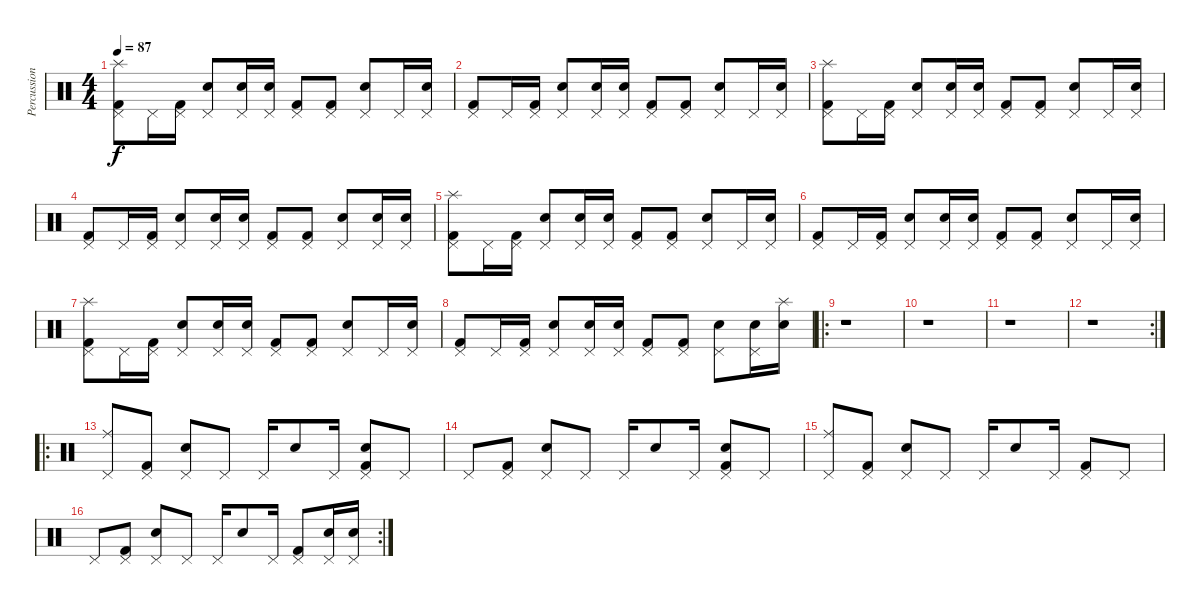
\track ("Percussions" "Percussion") {instrument percussion}
\staff {score}
\articulation defaults
\ts (4 4)
\tempo 87
\clef neutral
\ks c
("Splash (hit)" "Pedal Hi-Hat (hit)" "Kick (hit) 2").8{dy f} "Pedal Hi-Hat (hit)".16 ("Pedal Hi-Hat (hit)" "Kick (hit) 2").16 ("Pedal Hi-Hat (hit)" "Snare (hit) 2").8 ("Pedal Hi-Hat (hit)" "Snare (hit) 2").16 ("Pedal Hi-Hat (hit)" "Snare (hit) 2").16 ("Pedal Hi-Hat (hit)" "Kick (hit) 2").8 ("Pedal Hi-Hat (hit)" "Kick (hit) 2").8 ("Pedal Hi-Hat (hit)" "Snare (hit) 2").8 "Pedal Hi-Hat (hit)".16 ("Pedal Hi-Hat (hit)" "Snare (hit) 2").16 |
("Pedal Hi-Hat (hit)" "Kick (hit) 2").8 "Pedal Hi-Hat (hit)".16 ("Pedal Hi-Hat (hit)" "Kick (hit) 2").16 ("Pedal Hi-Hat (hit)" "Snare (hit) 2").8 ("Pedal Hi-Hat (hit)" "Snare (hit) 2").16 ("Pedal Hi-Hat (hit)" "Snare (hit) 2").16 ("Pedal Hi-Hat (hit)" "Kick (hit) 2").8 ("Pedal Hi-Hat (hit)" "Kick (hit) 2").8 ("Pedal Hi-Hat (hit)" "Snare (hit) 2").8 "Pedal Hi-Hat (hit)".16 ("Pedal Hi-Hat (hit)" "Snare (hit) 2").16 |
("Splash (hit)" "Pedal Hi-Hat (hit)" "Kick (hit) 2").8 "Pedal Hi-Hat (hit)".16 ("Pedal Hi-Hat (hit)" "Kick (hit) 2").16 ("Pedal Hi-Hat (hit)" "Snare (hit) 2").8 ("Pedal Hi-Hat (hit)" "Snare (hit) 2").16 ("Pedal Hi-Hat (hit)" "Snare (hit) 2").16 ("Pedal Hi-Hat (hit)" "Kick (hit) 2").8 ("Pedal Hi-Hat (hit)" "Kick (hit) 2").8 ("Pedal Hi-Hat (hit)" "Snare (hit) 2").8 "Pedal Hi-Hat (hit)".16 ("Pedal Hi-Hat (hit)" "Snare (hit) 2").16 |
("Pedal Hi-Hat (hit)" "Kick (hit) 2").8 "Pedal Hi-Hat (hit)".16 ("Pedal Hi-Hat (hit)" "Kick (hit) 2").16 ("Pedal Hi-Hat (hit)" "Snare (hit) 2").8 ("Pedal Hi-Hat (hit)" "Snare (hit) 2").16 ("Pedal Hi-Hat (hit)" "Snare (hit) 2").16 ("Pedal Hi-Hat (hit)" "Kick (hit) 2").8 ("Pedal Hi-Hat (hit)" "Kick (hit) 2").8 ("Pedal Hi-Hat (hit)" "Snare (hit) 2").8 ("Pedal Hi-Hat (hit)" "Snare (hit) 2").16 ("Pedal Hi-Hat (hit)" "Snare (hit) 2").16 |
("Splash (hit)" "Pedal Hi-Hat (hit)" "Kick (hit) 2").8 "Pedal Hi-Hat (hit)".16 ("Pedal Hi-Hat (hit)" "Kick (hit) 2").16 ("Pedal Hi-Hat (hit)" "Snare (hit) 2").8 ("Pedal Hi-Hat (hit)" "Snare (hit) 2").16 ("Pedal Hi-Hat (hit)" "Snare (hit) 2").16 ("Pedal Hi-Hat (hit)" "Kick (hit) 2").8 ("Pedal Hi-Hat (hit)" "Kick (hit) 2").8 ("Pedal Hi-Hat (hit)" "Snare (hit) 2").8 "Pedal Hi-Hat (hit)".16 ("Pedal Hi-Hat (hit)" "Snare (hit) 2").16 |
("Pedal Hi-Hat (hit)" "Kick (hit) 2").8 "Pedal Hi-Hat (hit)".16 ("Pedal Hi-Hat (hit)" "Kick (hit) 2").16 ("Pedal Hi-Hat (hit)" "Snare (hit) 2").8 ("Pedal Hi-Hat (hit)" "Snare (hit) 2").16 ("Pedal Hi-Hat (hit)" "Snare (hit) 2").16 ("Pedal Hi-Hat (hit)" "Kick (hit) 2").8 ("Pedal Hi-Hat (hit)" "Kick (hit) 2").8 ("Pedal Hi-Hat (hit)" "Snare (hit) 2").8 "Pedal Hi-Hat (hit)".16 ("Pedal Hi-Hat (hit)" "Snare (hit) 2").16 |
("Splash (hit)" "Pedal Hi-Hat (hit)" "Kick (hit) 2").8 "Pedal Hi-Hat (hit)".16 ("Pedal Hi-Hat (hit)" "Kick (hit) 2").16 ("Pedal Hi-Hat (hit)" "Snare (hit) 2").8 ("Pedal Hi-Hat (hit)" "Snare (hit) 2").16 ("Pedal Hi-Hat (hit)" "Snare (hit) 2").16 ("Pedal Hi-Hat (hit)" "Kick (hit) 2").8 ("Pedal Hi-Hat (hit)" "Kick (hit) 2").8 ("Pedal Hi-Hat (hit)" "Snare (hit) 2").8 "Pedal Hi-Hat (hit)".16 ("Pedal Hi-Hat (hit)" "Snare (hit) 2").16 |
("Pedal Hi-Hat (hit)" "Kick (hit) 2").8 "Pedal Hi-Hat (hit)".16 ("Pedal Hi-Hat (hit)" "Kick (hit) 2").16 ("Pedal Hi-Hat (hit)" "Snare (hit) 2").8 ("Pedal Hi-Hat (hit)" "Snare (hit) 2").16 ("Pedal Hi-Hat (hit)" "Snare (hit) 2").16 ("Pedal Hi-Hat (hit)" "Kick (hit) 2").8 ("Pedal Hi-Hat (hit)" "Kick (hit) 2").8 ("Pedal Hi-Hat (hit)" "Snare (hit) 2").8 ("Pedal Hi-Hat (hit)" "Snare (hit) 2").16 ("Splash (hit)" "Snare (hit) 2").16 |
\ro
r.1 |
r.1 |
r.1 |
\rc 2
r.1 |
\ro
("Ride (middle)" "Pedal Hi-Hat (hit)").8 ("Pedal Hi-Hat (hit)" "Kick (hit) 2").8 ("Pedal Hi-Hat (hit)" "Snare (hit) 2").8 "Pedal Hi-Hat (hit)".8 "Pedal Hi-Hat (hit)".16 "Snare (hit) 2".8 "Pedal Hi-Hat (hit)".16 ("Pedal Hi-Hat (hit)" "Snare (hit) 2" "Kick (hit) 2").8 "Pedal Hi-Hat (hit)".8 |
"Pedal Hi-Hat (hit)".8 ("Pedal Hi-Hat (hit)" "Kick (hit) 2").8 ("Pedal Hi-Hat (hit)" "Snare (hit) 2").8 "Pedal Hi-Hat (hit)".8 "Pedal Hi-Hat (hit)".16 "Snare (hit) 2".8 "Pedal Hi-Hat (hit)".16 ("Pedal Hi-Hat (hit)" "Snare (hit) 2" "Kick (hit) 2").8 "Pedal Hi-Hat (hit)".8 |
("Ride (middle)" "Pedal Hi-Hat (hit)").8 ("Pedal Hi-Hat (hit)" "Kick (hit) 2").8 ("Pedal Hi-Hat (hit)" "Snare (hit) 2").8 "Pedal Hi-Hat (hit)".8 "Pedal Hi-Hat (hit)".16 "Snare (hit) 2".8 "Pedal Hi-Hat (hit)".16 ("Pedal Hi-Hat (hit)" "Kick (hit) 2").8 "Pedal Hi-Hat (hit)".8 |
\rc 2 "Pedal Hi-Hat (hit)".8
("Pedal Hi-Hat (hit)" "Kick (hit) 2").8 ("Pedal Hi-Hat (hit)" "Snare (hit) 2").8 "Pedal Hi-Hat (hit)".8 "Pedal Hi-Hat (hit)".16 "Snare (hit) 2".8 "Pedal Hi-Hat (hit)".16 ("Pedal Hi-Hat (hit)" "Kick (hit) 2").8 ("Pedal Hi-Hat (hit)" "Snare (hit) 2").16 ("Pedal Hi-Hat (hit)" "Snare (hit) 2").16
